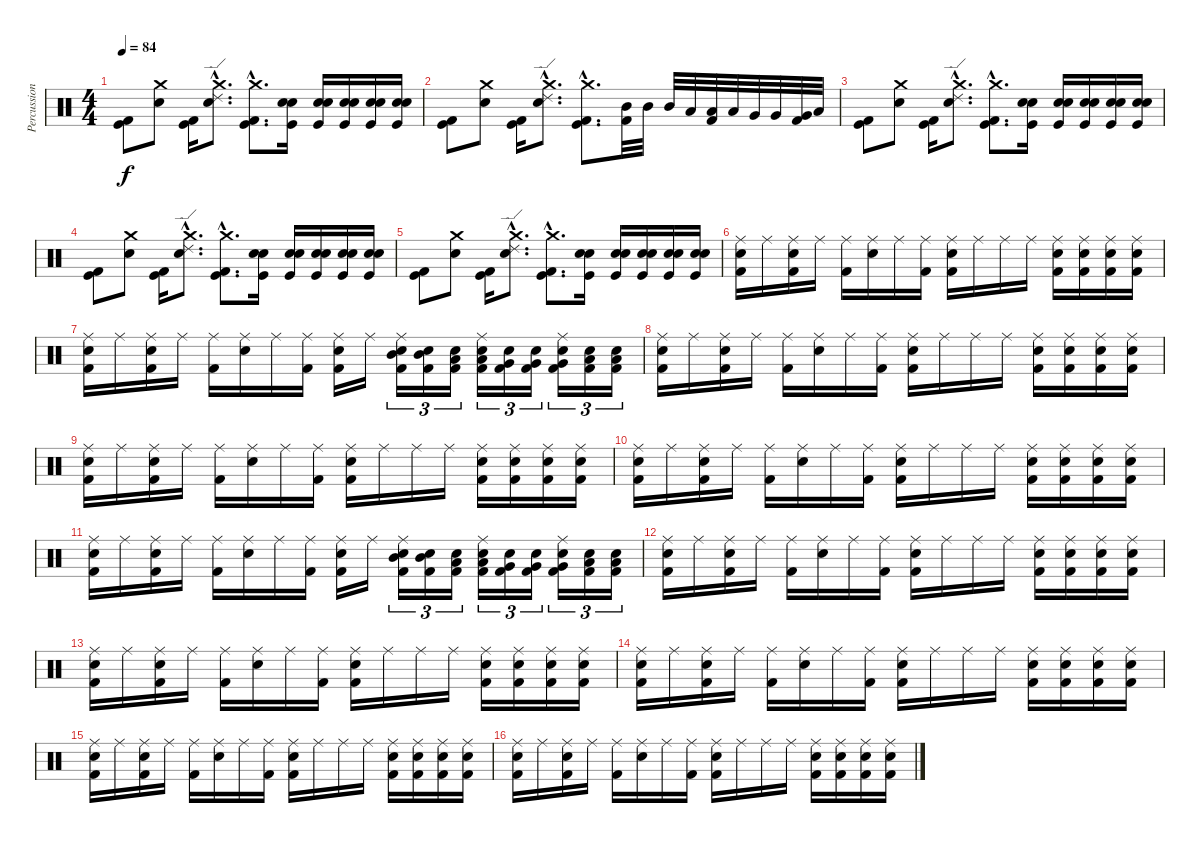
\track ("Percussions" "Percussion") {instrument percussion}
\staff {score}
\articulation defaults
\ts (4 4)
\tempo 84
\clef neutral
\ks c
("Kick (hit)" "Kick (hit) 2").8{dy f} ("Crash medium (hit)" "Snare (hit) 2").8 ("Kick (hit)" "Kick (hit) 2").16 ("Crash medium (hit)"{hac} "Snare (hit) 2"{hac} "Ride (edge) 2"{hac}).8{d} ("Crash medium (hit)"{hac} "Kick (hit)"{hac} "Kick (hit) 2"{hac}).8{d} ("Kick (hit)" "Electric Snare (hit)" "Electric Snare (hit)").16 ("Kick (hit)" "Electric Snare (hit)" "Electric Snare (hit)").16 ("Kick (hit)" "Electric Snare (hit)" "Electric Snare (hit)").16 ("Kick (hit)" "Electric Snare (hit)" "Electric Snare (hit)").16 ("Kick (hit)" "Electric Snare (hit)" "Electric Snare (hit)").16 |
("Kick (hit)" "Kick (hit) 2").8 ("Crash medium (hit)" "Snare (hit) 2").8 ("Kick (hit)" "Kick (hit) 2").16 ("Crash medium (hit)"{hac} "Snare (hit) 2"{hac} "Ride (edge) 2"{hac}).8{d} ("Crash medium (hit)"{hac} "Kick (hit)"{hac} "Kick (hit) 2"{hac}).8{d} ("Mid Tom (hit)" "Kick (hit) 2").32 "Mid Tom (hit)".32 "Mid Tom (hit)".32 "Low Tom (hit)".32 ("Low Tom (hit)" "Kick (hit) 2").32 "Low Tom (hit)".32 "Very Low Tom (hit)".32 "Very Low Tom (hit)".32 ("Very Low Tom (hit)" "Kick (hit) 2").32 "Low Floor Tom (hit)".32 |
("Kick (hit)" "Kick (hit) 2").8 ("Crash medium (hit)" "Snare (hit) 2").8 ("Kick (hit)" "Kick (hit) 2").16 ("Crash medium (hit)"{hac} "Snare (hit) 2"{hac} "Ride (edge) 2"{hac}).8{d} ("Crash medium (hit)"{hac} "Kick (hit)"{hac} "Kick (hit) 2"{hac}).8{d} ("Kick (hit)" "Electric Snare (hit)" "Electric Snare (hit)").16 ("Kick (hit)" "Electric Snare (hit)" "Electric Snare (hit)").16 ("Kick (hit)" "Electric Snare (hit)" "Electric Snare (hit)").16 ("Kick (hit)" "Electric Snare (hit)" "Electric Snare (hit)").16 ("Kick (hit)" "Electric Snare (hit)" "Electric Snare (hit)").16 |
("Kick (hit)" "Kick (hit) 2").8 ("Crash medium (hit)" "Snare (hit) 2").8 ("Kick (hit)" "Kick (hit) 2").16 ("Crash medium (hit)"{hac} "Snare (hit) 2"{hac} "Ride (edge) 2"{hac}).8{d} ("Crash medium (hit)"{hac} "Kick (hit)"{hac} "Kick (hit) 2"{hac}).8{d} ("Kick (hit)" "Electric Snare (hit)" "Electric Snare (hit)").16 ("Kick (hit)" "Electric Snare (hit)" "Electric Snare (hit)").16 ("Kick (hit)" "Electric Snare (hit)" "Electric Snare (hit)").16 ("Kick (hit)" "Electric Snare (hit)" "Electric Snare (hit)").16 ("Kick (hit)" "Electric Snare (hit)" "Electric Snare (hit)").16 |
("Kick (hit)" "Kick (hit) 2").8 ("Crash medium (hit)" "Snare (hit) 2").8 ("Kick (hit)" "Kick (hit) 2").16 ("Crash medium (hit)"{hac} "Snare (hit) 2"{hac} "Ride (edge) 2"{hac}).8{d} ("Crash medium (hit)"{hac} "Kick (hit)"{hac} "Kick (hit) 2"{hac}).8{d} ("Kick (hit)" "Electric Snare (hit)" "Electric Snare (hit)").16 ("Kick (hit)" "Electric Snare (hit)" "Electric Snare (hit)").16 ("Kick (hit)" "Electric Snare (hit)" "Electric Snare (hit)").16 ("Kick (hit)" "Electric Snare (hit)" "Electric Snare (hit)").16 ("Kick (hit)" "Electric Snare (hit)" "Electric Snare (hit)").16 |
("Ride (middle)" "Snare (hit) 2" "Kick (hit) 2").16 "Ride (middle)".16 ("Ride (middle)" "Snare (hit) 2" "Kick (hit) 2").16 "Ride (middle)".16 ("Ride (middle)" "Kick (hit) 2").16 ("Ride (middle)" "Snare (hit) 2").16 "Ride (middle)".16 ("Ride (middle)" "Kick (hit) 2").16 ("Ride (middle)" "Snare (hit) 2" "Kick (hit) 2").16 "Ride (middle)".16 "Ride (middle)".16 "Ride (middle)".16 ("Ride (middle)" "Snare (hit) 2" "Kick (hit) 2").16 ("Ride (middle)" "Kick (hit) 2" "Snare (hit) 2").16 ("Ride (middle)" "Snare (hit) 2" "Kick (hit) 2").16 ("Ride (middle)" "Snare (hit) 2" "Kick (hit) 2").16 |
("Ride (middle)" "Snare (hit) 2" "Kick (hit) 2").16 "Ride (middle)".16 ("Ride (middle)" "Snare (hit) 2" "Kick (hit) 2").16 "Ride (middle)".16 ("Ride (middle)" "Kick (hit) 2").16 ("Ride (middle)" "Snare (hit) 2").16 "Ride (middle)".16 ("Ride (middle)" "Kick (hit) 2").16 ("Ride (middle)" "Snare (hit) 2" "Kick (hit) 2").16 "Ride (middle)".16 ("Ride (middle)" "Snare (hit) 2" "Mid Tom (hit)" "Kick (hit) 2").16{tu (3 2)} ("Snare (hit) 2" "Mid Tom (hit)" "Kick (hit) 2").16{tu (3 2)} ("Snare (hit) 2" "Low Tom (hit)" "Kick (hit) 2").16{tu (3 2)} ("Ride (middle)" "Snare (hit) 2" "Low Tom (hit)" "Kick (hit) 2").16{tu (3 2)} ("Snare (hit) 2" "Very Low Tom (hit)" "Kick (hit) 2").16{tu (3 2)} ("Electric Snare (hit)" "Very Low Tom (hit)" "Kick (hit) 2").16{tu (3 2)} ("Ride (middle)" "Electric Snare (hit)" "Very Low Tom (hit)" "Kick (hit) 2").16{tu (3 2)} ("Electric Snare (hit)" "Low Floor Tom (hit)" "Kick (hit) 2").16{tu (3 2)} ("Electric Snare (hit)" "Low Floor Tom (hit)" "Kick (hit) 2").16{tu (3 2)} |
("Ride (middle)" "Snare (hit) 2" "Kick (hit) 2").16 "Ride (middle)".16 ("Ride (middle)" "Snare (hit) 2" "Kick (hit) 2").16 "Ride (middle)".16 ("Ride (middle)" "Kick (hit) 2").16 ("Ride (middle)" "Snare (hit) 2").16 "Ride (middle)".16 ("Ride (middle)" "Kick (hit) 2").16 ("Ride (middle)" "Snare (hit) 2" "Kick (hit) 2").16 "Ride (middle)".16 "Ride (middle)".16 "Ride (middle)".16 ("Ride (middle)" "Snare (hit) 2" "Kick (hit) 2").16 ("Ride (middle)" "Kick (hit) 2" "Snare (hit) 2").16 ("Ride (middle)" "Snare (hit) 2" "Kick (hit) 2").16 ("Ride (middle)" "Snare (hit) 2" "Kick (hit) 2").16 |
("Ride (middle)" "Snare (hit) 2" "Kick (hit) 2").16 "Ride (middle)".16 ("Ride (middle)" "Snare (hit) 2" "Kick (hit) 2").16 "Ride (middle)".16 ("Ride (middle)" "Kick (hit) 2").16 ("Ride (middle)" "Snare (hit) 2").16 "Ride (middle)".16 ("Ride (middle)" "Kick (hit) 2").16 ("Ride (middle)" "Snare (hit) 2" "Kick (hit) 2").16 "Ride (middle)".16 "Ride (middle)".16 "Ride (middle)".16 ("Ride (middle)" "Snare (hit) 2" "Kick (hit) 2").16 ("Ride (middle)" "Kick (hit) 2" "Snare (hit) 2").16 ("Ride (middle)" "Snare (hit) 2" "Kick (hit) 2").16 ("Ride (middle)" "Snare (hit) 2" "Kick (hit) 2").16 |
("Ride (middle)" "Snare (hit) 2" "Kick (hit) 2").16 "Ride (middle)".16 ("Ride (middle)" "Snare (hit) 2" "Kick (hit) 2").16 "Ride (middle)".16 ("Ride (middle)" "Kick (hit) 2").16 ("Ride (middle)" "Snare (hit) 2").16 "Ride (middle)".16 ("Ride (middle)" "Kick (hit) 2").16 ("Ride (middle)" "Snare (hit) 2" "Kick (hit) 2").16 "Ride (middle)".16 "Ride (middle)".16 "Ride (middle)".16 ("Ride (middle)" "Snare (hit) 2" "Kick (hit) 2").16 ("Ride (middle)" "Kick (hit) 2" "Snare (hit) 2").16 ("Ride (middle)" "Snare (hit) 2" "Kick (hit) 2").16 ("Ride (middle)" "Snare (hit) 2" "Kick (hit) 2").16 |
("Ride (middle)" "Snare (hit) 2" "Kick (hit) 2").16 "Ride (middle)".16 ("Ride (middle)" "Snare (hit) 2" "Kick (hit) 2").16 "Ride (middle)".16 ("Ride (middle)" "Kick (hit) 2").16 ("Ride (middle)" "Snare (hit) 2").16 "Ride (middle)".16 ("Ride (middle)" "Kick (hit) 2").16 ("Ride (middle)" "Snare (hit) 2" "Kick (hit) 2").16 "Ride (middle)".16 ("Ride (middle)" "Snare (hit) 2" "Mid Tom (hit)" "Kick (hit) 2").16{tu (3 2)} ("Snare (hit) 2" "Mid Tom (hit)" "Kick (hit) 2").16{tu (3 2)} ("Snare (hit) 2" "Low Tom (hit)" "Kick (hit) 2").16{tu (3 2)} ("Ride (middle)" "Snare (hit) 2" "Low Tom (hit)" "Kick (hit) 2").16{tu (3 2)} ("Snare (hit) 2" "Very Low Tom (hit)" "Kick (hit) 2").16{tu (3 2)} ("Electric Snare (hit)" "Very Low Tom (hit)" "Kick (hit) 2").16{tu (3 2)} ("Ride (middle)" "Electric Snare (hit)" "Very Low Tom (hit)" "Kick (hit) 2").16{tu (3 2)} ("Electric Snare (hit)" "Low Floor Tom (hit)" "Kick (hit) 2").16{tu (3 2)} ("Electric Snare (hit)" "Low Floor Tom (hit)" "Kick (hit) 2").16{tu (3 2)} |
("Ride (middle)" "Snare (hit) 2" "Kick (hit) 2").16 "Ride (middle)".16 ("Ride (middle)" "Snare (hit) 2" "Kick (hit) 2").16 "Ride (middle)".16 ("Ride (middle)" "Kick (hit) 2").16 ("Ride (middle)" "Snare (hit) 2").16 "Ride (middle)".16 ("Ride (middle)" "Kick (hit) 2").16 ("Ride (middle)" "Snare (hit) 2" "Kick (hit) 2").16 "Ride (middle)".16 "Ride (middle)".16 "Ride (middle)".16 ("Ride (middle)" "Snare (hit) 2" "Kick (hit) 2").16 ("Ride (middle)" "Kick (hit) 2" "Snare (hit) 2").16 ("Ride (middle)" "Snare (hit) 2" "Kick (hit) 2").16 ("Ride (middle)" "Snare (hit) 2" "Kick (hit) 2").16 |
("Ride (middle)" "Snare (hit) 2" "Kick (hit) 2").16 "Ride (middle)".16 ("Ride (middle)" "Snare (hit) 2" "Kick (hit) 2").16 "Ride (middle)".16 ("Ride (middle)" "Kick (hit) 2").16 ("Ride (middle)" "Snare (hit) 2").16 "Ride (middle)".16 ("Ride (middle)" "Kick (hit) 2").16 ("Ride (middle)" "Snare (hit) 2" "Kick (hit) 2").16 "Ride (middle)".16 "Ride (middle)".16 "Ride (middle)".16 ("Ride (middle)" "Snare (hit) 2" "Kick (hit) 2").16 ("Ride (middle)" "Kick (hit) 2" "Snare (hit) 2").16 ("Ride (middle)" "Snare (hit) 2" "Kick (hit) 2").16 ("Ride (middle)" "Snare (hit) 2" "Kick (hit) 2").16 |
("Ride (middle)" "Snare (hit) 2" "Kick (hit) 2").16 "Ride (middle)".16 ("Ride (middle)" "Snare (hit) 2" "Kick (hit) 2").16 "Ride (middle)".16 ("Ride (middle)" "Kick (hit) 2").16 ("Ride (middle)" "Snare (hit) 2").16 "Ride (middle)".16 ("Ride (middle)" "Kick (hit) 2").16 ("Ride (middle)" "Snare (hit) 2" "Kick (hit) 2").16 "Ride (middle)".16 "Ride (middle)".16 "Ride (middle)".16 ("Ride (middle)" "Snare (hit) 2" "Kick (hit) 2").16 ("Ride (middle)" "Kick (hit) 2" "Snare (hit) 2").16 ("Ride (middle)" "Snare (hit) 2" "Kick (hit) 2").16 ("Ride (middle)" "Snare (hit) 2" "Kick (hit) 2").16 |
("Ride (middle)" "Snare (hit) 2" "Kick (hit) 2").16 "Ride (middle)".16 ("Ride (middle)" "Snare (hit) 2" "Kick (hit) 2").16 "Ride (middle)".16 ("Ride (middle)" "Kick (hit) 2").16 ("Ride (middle)" "Snare (hit) 2").16 "Ride (middle)".16 ("Ride (middle)" "Kick (hit) 2").16 ("Ride (middle)" "Snare (hit) 2" "Kick (hit) 2").16 "Ride (middle)".16 "Ride (middle)".16 "Ride (middle)".16 ("Ride (middle)" "Snare (hit) 2" "Kick (hit) 2").16 ("Ride (middle)" "Kick (hit) 2" "Snare (hit) 2").16 ("Ride (middle)" "Snare (hit) 2" "Kick (hit) 2").16 ("Ride (middle)" "Snare (hit) 2" "Kick (hit) 2").16 |
("Ride (middle)" "Snare (hit) 2" "Kick (hit) 2").16 "Ride (middle)".16 ("Ride (middle)" "Snare (hit) 2" "Kick (hit) 2").16 "Ride (middle)".16 ("Ride (middle)" "Kick (hit) 2").16 ("Ride (middle)" "Snare (hit) 2").16 "Ride (middle)".16 ("Ride (middle)" "Kick (hit) 2").16 ("Ride (middle)" "Snare (hit) 2" "Kick (hit) 2").16 "Ride (middle)".16 "Ride (middle)".16 "Ride (middle)".16 ("Ride (middle)" "Snare (hit) 2" "Kick (hit) 2").16 ("Ride (middle)" "Kick (hit) 2" "Snare (hit) 2").16 ("Ride (middle)" "Snare (hit) 2" "Kick (hit) 2").16 ("Ride (middle)" "Snare (hit) 2" "Kick (hit) 2").16
